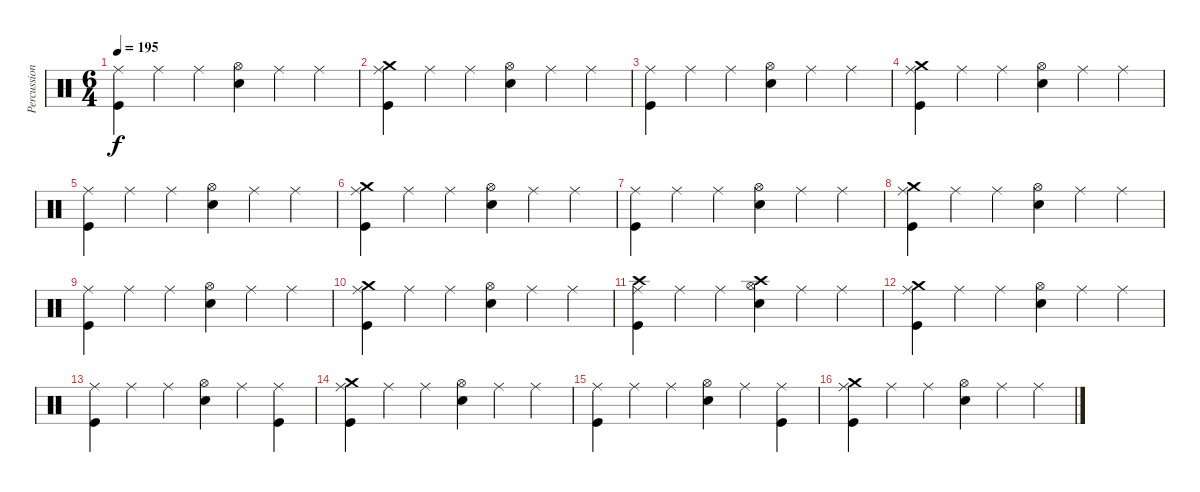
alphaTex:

\track ("Percussion" "Percussion") {instrument percussion}
\staff {score}
\articulation defaults
\ts (6 4)
\tempo 195
\clef neutral
\ks c
("Ride (middle)" "Kick (hit)").4{dy f} "Ride (middle)".4 "Ride (middle)".4 ("Hi-Hat (open)" "Electric Snare (hit)").4 "Ride (middle)".4 "Ride (middle)".4 |
("Crash medium (hit)" "Ride (middle)" "Kick (hit)").4 "Ride (middle)".4 "Ride (middle)".4 ("Hi-Hat (open)" "Electric Snare (hit)").4 "Ride (middle)".4 "Ride (middle)".4 |
("Ride (middle)" "Kick (hit)").4 "Ride (middle)".4 "Ride (middle)".4 ("Hi-Hat (open)" "Electric Snare (hit)").4 "Ride (middle)".4 "Ride (middle)".4 |
("Crash medium (hit)" "Ride (middle)" "Kick (hit)").4 "Ride (middle)".4 "Ride (middle)".4 ("Hi-Hat (open)" "Electric Snare (hit)").4 "Ride (middle)".4 "Ride (middle)".4 |
("Ride (middle)" "Kick (hit)").4 "Ride (middle)".4 "Ride (middle)".4 ("Hi-Hat (open)" "Electric Snare (hit)").4 "Ride (middle)".4 "Ride (middle)".4 |
("Crash medium (hit)" "Ride (middle)" "Kick (hit)").4 "Ride (middle)".4 "Ride (middle)".4 ("Hi-Hat (open)" "Electric Snare (hit)").4 "Ride (middle)".4 "Ride (middle)".4 |
("Ride (middle)" "Kick (hit)").4 "Ride (middle)".4 "Ride (middle)".4 ("Hi-Hat (open)" "Electric Snare (hit)").4 "Ride (middle)".4 "Ride (middle)".4 |
("Crash medium (hit)" "Ride (middle)" "Kick (hit)").4 "Ride (middle)".4 "Ride (middle)".4 ("Hi-Hat (open)" "Electric Snare (hit)").4 "Ride (middle)".4 "Ride (middle)".4 |
("Ride (middle)" "Kick (hit)").4 "Ride (middle)".4 "Ride (middle)".4 ("Hi-Hat (open)" "Electric Snare (hit)").4 "Ride (middle)".4 "Ride (middle)".4 |
("Crash medium (hit)" "Ride (middle)" "Kick (hit)").4 "Ride (middle)".4 "Ride (middle)".4 ("Hi-Hat (open)" "Electric Snare (hit)").4 "Ride (middle)".4 "Ride (middle)".4 |
("Crash high (hit)" "Ride (middle)" "Kick (hit)").4 "Ride (middle)".4 "Ride (middle)".4 ("Crash high (hit)" "Hi-Hat (open)" "Electric Snare (hit)").4 "Ride (middle)".4 "Ride (middle)".4 |
("Crash medium (hit)" "Ride (middle)" "Kick (hit)").4 "Ride (middle)".4 "Ride (middle)".4 ("Hi-Hat (open)" "Electric Snare (hit)").4 "Ride (middle)".4 "Ride (middle)".4 |
("Ride (middle)" "Kick (hit)").4 "Ride (middle)".4 "Ride (middle)".4 ("Hi-Hat (open)" "Electric Snare (hit)").4 "Ride (middle)".4 ("Ride (middle)" "Kick (hit)").4 |
("Crash medium (hit)" "Ride (middle)" "Kick (hit)").4 "Ride (middle)".4 "Ride (middle)".4 ("Hi-Hat (open)" "Electric Snare (hit)").4 "Ride (middle)".4 "Ride (middle)".4 |
("Ride (middle)" "Kick (hit)").4 "Ride (middle)".4 "Ride (middle)".4 ("Hi-Hat (open)" "Electric Snare (hit)").4 "Ride (middle)".4 ("Ride (middle)" "Kick (hit)").4 |
("Crash medium (hit)" "Ride (middle)" "Kick (hit)").4 "Ride (middle)".4 "Ride (middle)".4 ("Hi-Hat (open)" "Electric Snare (hit)").4 "Ride (middle)".4 "Ride (middle)".4
